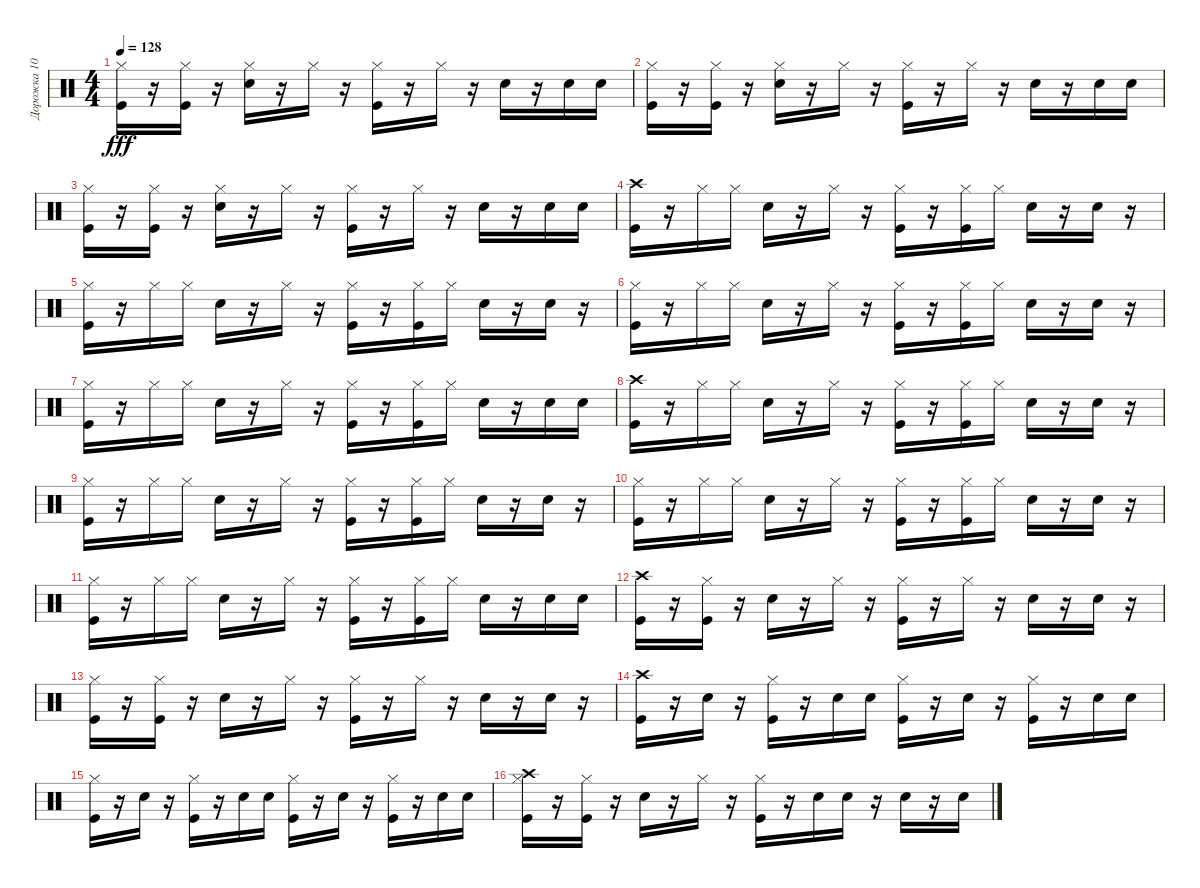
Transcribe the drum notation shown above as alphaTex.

\track ("Дорожка 10" "Дорожка 10") {instrument percussion}
\staff {score}
\articulation defaults
\ts (4 4)
\tempo 128
\clef neutral
\ks c
("Kick (hit)" "Hi-Hat (closed)").16{dy fff} r.16 ("Kick (hit)" "Hi-Hat (closed)").16 r.16 ("Electric Snare (hit)" "Hi-Hat (closed)").16 r.16 "Hi-Hat (closed)".16 r.16 ("Hi-Hat (closed)" "Kick (hit)").16 r.16 "Hi-Hat (closed)".16 r.16 "Electric Snare (hit)".16 r.16 "Electric Snare (hit)".16 "Electric Snare (hit)".16 |
("Hi-Hat (closed)" "Kick (hit)").16 r.16 ("Kick (hit)" "Hi-Hat (closed)").16 r.16 ("Electric Snare (hit)" "Hi-Hat (closed)").16 r.16 "Hi-Hat (closed)".16 r.16 ("Kick (hit)" "Hi-Hat (closed)").16 r.16 "Hi-Hat (closed)".16 r.16 "Electric Snare (hit)".16 r.16 "Electric Snare (hit)".16 "Electric Snare (hit)".16 |
("Kick (hit)" "Hi-Hat (closed)").16 r.16 ("Kick (hit)" "Hi-Hat (closed)").16 r.16 ("Electric Snare (hit)" "Hi-Hat (closed)").16 r.16 "Hi-Hat (closed)".16 r.16 ("Hi-Hat (closed)" "Kick (hit)").16 r.16 "Hi-Hat (closed)".16 r.16 "Electric Snare (hit)".16 r.16 "Electric Snare (hit)".16 "Electric Snare (hit)".16 |
("Kick (hit)" "Crash high (hit)").16 r.16 "Hi-Hat (closed)".16 "Hi-Hat (closed)".16 "Electric Snare (hit)".16 r.16 "Hi-Hat (closed)".16 r.16 ("Kick (hit)" "Hi-Hat (closed)").16 r.16 ("Kick (hit)" "Hi-Hat (closed)").16 "Hi-Hat (closed)".16 "Electric Snare (hit)".16 r.16 "Electric Snare (hit)".16 r.16 |
("Hi-Hat (closed)" "Kick (hit)").16 r.16 "Hi-Hat (closed)".16 "Hi-Hat (closed)".16 "Electric Snare (hit)".16 r.16 "Hi-Hat (closed)".16 r.16 ("Hi-Hat (closed)" "Kick (hit)").16 r.16 ("Hi-Hat (closed)" "Kick (hit)").16 "Hi-Hat (closed)".16 "Electric Snare (hit)".16 r.16 "Electric Snare (hit)".16 r.16 |
("Hi-Hat (closed)" "Kick (hit)").16 r.16 "Hi-Hat (closed)".16 "Hi-Hat (closed)".16 "Electric Snare (hit)".16 r.16 "Hi-Hat (closed)".16 r.16 ("Kick (hit)" "Hi-Hat (closed)").16 r.16 ("Hi-Hat (closed)" "Kick (hit)").16 "Hi-Hat (closed)".16 "Electric Snare (hit)".16 r.16 "Electric Snare (hit)".16 r.16 |
("Kick (hit)" "Hi-Hat (closed)").16 r.16 "Hi-Hat (closed)".16 "Hi-Hat (closed)".16 "Electric Snare (hit)".16 r.16 "Hi-Hat (closed)".16 r.16 ("Hi-Hat (closed)" "Kick (hit)").16 r.16 ("Kick (hit)" "Hi-Hat (closed)").16 "Hi-Hat (closed)".16 "Electric Snare (hit)".16 r.16 "Electric Snare (hit)".16 "Electric Snare (hit)".16 |
("Kick (hit)" "Crash high (hit)").16 r.16 "Hi-Hat (closed)".16 "Hi-Hat (closed)".16 "Electric Snare (hit)".16 r.16 "Hi-Hat (closed)".16 r.16 ("Kick (hit)" "Hi-Hat (closed)").16 r.16 ("Hi-Hat (closed)" "Kick (hit)").16 "Hi-Hat (closed)".16 "Electric Snare (hit)".16 r.16 "Electric Snare (hit)".16 r.16 |
("Hi-Hat (closed)" "Kick (hit)").16 r.16 "Hi-Hat (closed)".16 "Hi-Hat (closed)".16 "Electric Snare (hit)".16 r.16 "Hi-Hat (closed)".16 r.16 ("Hi-Hat (closed)" "Kick (hit)").16 r.16 ("Hi-Hat (closed)" "Kick (hit)").16 "Hi-Hat (closed)".16 "Electric Snare (hit)".16 r.16 "Electric Snare (hit)".16 r.16 |
("Kick (hit)" "Hi-Hat (closed)").16 r.16 "Hi-Hat (closed)".16 "Hi-Hat (closed)".16 "Electric Snare (hit)".16 r.16 "Hi-Hat (closed)".16 r.16 ("Kick (hit)" "Hi-Hat (closed)").16 r.16 ("Kick (hit)" "Hi-Hat (closed)").16 "Hi-Hat (closed)".16 "Electric Snare (hit)".16 r.16 "Electric Snare (hit)".16 r.16 |
("Hi-Hat (closed)" "Kick (hit)").16 r.16 "Hi-Hat (closed)".16 "Hi-Hat (closed)".16 "Electric Snare (hit)".16 r.16 "Hi-Hat (closed)".16 r.16 ("Kick (hit)" "Hi-Hat (closed)").16 r.16 ("Hi-Hat (closed)" "Kick (hit)").16 "Hi-Hat (closed)".16 "Electric Snare (hit)".16 r.16 "Electric Snare (hit)".16 "Electric Snare (hit)".16 |
("Crash high (hit)" "Kick (hit)").16 r.16 ("Kick (hit)" "Hi-Hat (closed)").16 r.16 "Electric Snare (hit)".16 r.16 "Hi-Hat (closed)".16 r.16 ("Kick (hit)" "Hi-Hat (closed)").16 r.16 "Hi-Hat (closed)".16 r.16 "Electric Snare (hit)".16 r.16 "Electric Snare (hit)".16 r.16 |
("Hi-Hat (closed)" "Kick (hit)").16 r.16 ("Kick (hit)" "Hi-Hat (closed)").16 r.16 "Electric Snare (hit)".16 r.16 "Hi-Hat (closed)".16 r.16 ("Kick (hit)" "Hi-Hat (closed)").16 r.16 "Hi-Hat (closed)".16 r.16 "Electric Snare (hit)".16 r.16 "Electric Snare (hit)".16 r.16 |
("Crash high (hit)" "Kick (hit)").16 r.16 "Electric Snare (hit)".16 r.16 ("Kick (hit)" "Hi-Hat (closed)").16 r.16 "Electric Snare (hit)".16 "Electric Snare (hit)".16 ("Kick (hit)" "Hi-Hat (closed)").16 r.16 "Electric Snare (hit)".16 r.16 ("Kick (hit)" "Hi-Hat (closed)").16 r.16 "Electric Snare (hit)".16 "Electric Snare (hit)".16 |
("Kick (hit)" "Hi-Hat (closed)").16 r.16 "Electric Snare (hit)".16 r.16 ("Kick (hit)" "Hi-Hat (closed)").16 r.16 "Electric Snare (hit)".16 "Electric Snare (hit)".16 ("Kick (hit)" "Hi-Hat (closed)").16 r.16 "Electric Snare (hit)".16 r.16 ("Kick (hit)" "Hi-Hat (closed)").16 r.16 "Electric Snare (hit)".16 "Electric Snare (hit)".16 |
("Crash high (hit)" "Kick (hit)" "Hi-Hat (closed)").16 r.16 ("Kick (hit)" "Hi-Hat (closed)").16 r.16 "Electric Snare (hit)".16 r.16 "Hi-Hat (closed)".16 r.16 ("Kick (hit)" "Hi-Hat (closed)").16 r.16 "Electric Snare (hit)".16 "Electric Snare (hit)".16 r.16 "Electric Snare (hit)".16 r.16 "Electric Snare (hit)".16
